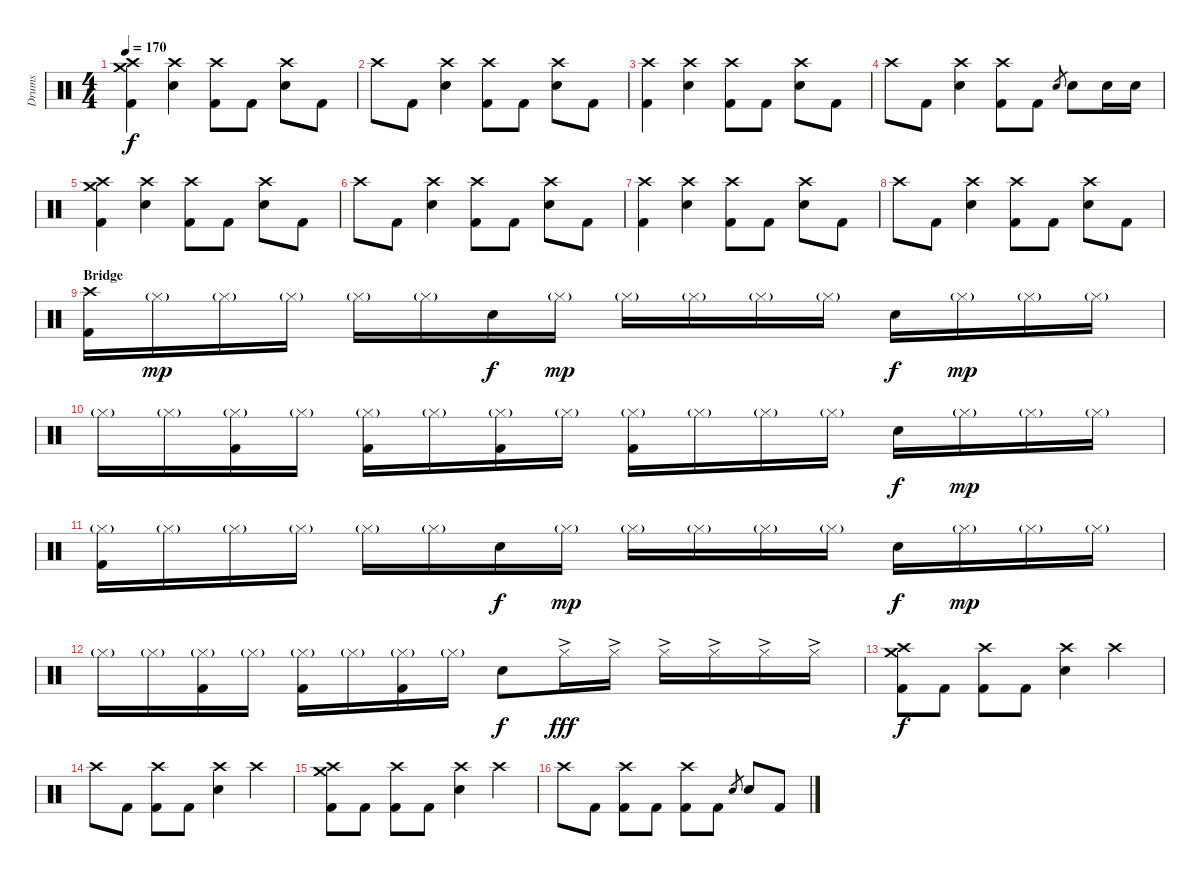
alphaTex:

\track ("Drums" "Drums") {instrument percussion}
\staff {score}
\articulation defaults
\ts (4 4)
\tempo 170
\clef neutral
\ks c
("Crash medium (hit)" "Crash high (hit)" "Kick (hit) 2").4{dy f} ("Crash high (hit)" "Snare (hit) 2").4 ("Crash high (hit)" "Kick (hit) 2").8 "Kick (hit) 2".8 ("Crash high (hit)" "Snare (hit) 2").8 "Kick (hit) 2".8 |
"Crash high (hit)".8 "Kick (hit) 2".8 ("Crash high (hit)" "Snare (hit) 2").4 ("Crash high (hit)" "Kick (hit) 2").8 "Kick (hit) 2".8 ("Crash high (hit)" "Snare (hit) 2").8 "Kick (hit) 2".8 |
("Crash high (hit)" "Kick (hit) 2").4 ("Crash high (hit)" "Snare (hit) 2").4 ("Crash high (hit)" "Kick (hit) 2").8 "Kick (hit) 2".8 ("Crash high (hit)" "Snare (hit) 2").8 "Kick (hit) 2".8 |
"Crash high (hit)".8 "Kick (hit) 2".8 ("Crash high (hit)" "Snare (hit) 2").4 ("Crash high (hit)" "Kick (hit) 2").8 "Kick (hit) 2".8 "Snare (hit) 2".8{gr} "Snare (hit) 2".8 "Snare (hit) 2".16 "Snare (hit) 2".16 |
("Crash medium (hit)" "Crash high (hit)" "Kick (hit) 2").4 ("Crash high (hit)" "Snare (hit) 2").4 ("Crash high (hit)" "Kick (hit) 2").8 "Kick (hit) 2".8 ("Crash high (hit)" "Snare (hit) 2").8 "Kick (hit) 2".8 |
"Crash high (hit)".8 "Kick (hit) 2".8 ("Crash high (hit)" "Snare (hit) 2").4 ("Crash high (hit)" "Kick (hit) 2").8 "Kick (hit) 2".8 ("Crash high (hit)" "Snare (hit) 2").8 "Kick (hit) 2".8 |
("Crash high (hit)" "Kick (hit) 2").4 ("Crash high (hit)" "Snare (hit) 2").4 ("Crash high (hit)" "Kick (hit) 2").8 "Kick (hit) 2".8 ("Crash high (hit)" "Snare (hit) 2").8 "Kick (hit) 2".8 |
"Crash high (hit)".8 "Kick (hit) 2".8 ("Crash high (hit)" "Snare (hit) 2").4 ("Crash high (hit)" "Kick (hit) 2").8 "Kick (hit) 2".8 ("Crash high (hit)" "Snare (hit) 2").8 "Kick (hit) 2".8 |
\section ("" "Bridge")
("Crash high (hit)" "Kick (hit) 2").16 "Hi-Hat (closed)"{g}.16{dy mp} "Hi-Hat (closed)"{g}.16 "Hi-Hat (closed)"{g}.16 "Hi-Hat (closed)"{g}.16 "Hi-Hat (closed)"{g}.16 "Snare (hit) 2".16{dy f} "Hi-Hat (closed)"{g}.16{dy mp} "Hi-Hat (closed)"{g}.16 "Hi-Hat (closed)"{g}.16 "Hi-Hat (closed)"{g}.16 "Hi-Hat (closed)"{g}.16 "Snare (hit) 2".16{dy f} "Hi-Hat (closed)"{g}.16{dy mp} "Hi-Hat (closed)"{g}.16 "Hi-Hat (closed)"{g}.16 |
"Hi-Hat (closed)"{g}.16 "Hi-Hat (closed)"{g}.16 ("Hi-Hat (closed)"{g} "Kick (hit) 2").16 "Hi-Hat (closed)"{g}.16 ("Hi-Hat (closed)"{g} "Kick (hit) 2").16 "Hi-Hat (closed)"{g}.16 ("Hi-Hat (closed)"{g} "Kick (hit) 2").16 "Hi-Hat (closed)"{g}.16 ("Hi-Hat (closed)"{g} "Kick (hit) 2").16 "Hi-Hat (closed)"{g}.16 "Hi-Hat (closed)"{g}.16 "Hi-Hat (closed)"{g}.16 "Snare (hit) 2".16{dy f} "Hi-Hat (closed)"{g}.16{dy mp} "Hi-Hat (closed)"{g}.16 "Hi-Hat (closed)"{g}.16 |
("Hi-Hat (closed)"{g} "Kick (hit) 2").16 "Hi-Hat (closed)"{g}.16 "Hi-Hat (closed)"{g}.16 "Hi-Hat (closed)"{g}.16 "Hi-Hat (closed)"{g}.16 "Hi-Hat (closed)"{g}.16 "Snare (hit) 2".16{dy f} "Hi-Hat (closed)"{g}.16{dy mp} "Hi-Hat (closed)"{g}.16 "Hi-Hat (closed)"{g}.16 "Hi-Hat (closed)"{g}.16 "Hi-Hat (closed)"{g}.16 "Snare (hit) 2".16{dy f} "Hi-Hat (closed)"{g}.16{dy mp} "Hi-Hat (closed)"{g}.16 "Hi-Hat (closed)"{g}.16 |
"Hi-Hat (closed)"{g}.16 "Hi-Hat (closed)"{g}.16 ("Hi-Hat (closed)"{g} "Kick (hit) 2").16 "Hi-Hat (closed)"{g}.16 ("Hi-Hat (closed)"{g} "Kick (hit) 2").16 "Hi-Hat (closed)"{g}.16 ("Hi-Hat (closed)"{g} "Kick (hit) 2").16 "Hi-Hat (closed)"{g}.16 "Snare (hit) 2".8{dy f} "Hi-Hat (closed)"{ac}.16{dy fff} "Hi-Hat (closed)"{ac}.16 "Hi-Hat (closed)"{ac}.16 "Hi-Hat (closed)"{ac}.16 "Hi-Hat (closed)"{ac}.16 "Hi-Hat (closed)"{ac}.16 |
("Crash medium (hit)" "Crash high (hit)" "Kick (hit) 2").8{dy f} "Kick (hit) 2".8 ("Crash high (hit)" "Kick (hit) 2").8 "Kick (hit) 2".8 ("Crash high (hit)" "Snare (hit) 2").4 "Crash high (hit)".4 |
"Crash high (hit)".8 "Kick (hit) 2".8 ("Crash high (hit)" "Kick (hit) 2").8 "Kick (hit) 2".8 ("Crash high (hit)" "Snare (hit) 2").4 "Crash high (hit)".4 |
("Crash medium (hit)" "Crash high (hit)" "Kick (hit) 2").8 "Kick (hit) 2".8 ("Crash high (hit)" "Kick (hit) 2").8 "Kick (hit) 2".8 ("Crash high (hit)" "Snare (hit) 2").4 "Crash high (hit)".4 |
"Crash high (hit)".8 "Kick (hit) 2".8 ("Crash high (hit)" "Kick (hit) 2").8 "Kick (hit) 2".8 ("Crash high (hit)" "Kick (hit) 2").8 "Kick (hit) 2".8 "Snare (hit) 2".8{gr} "Snare (hit) 2".8 "Kick (hit) 2".8
